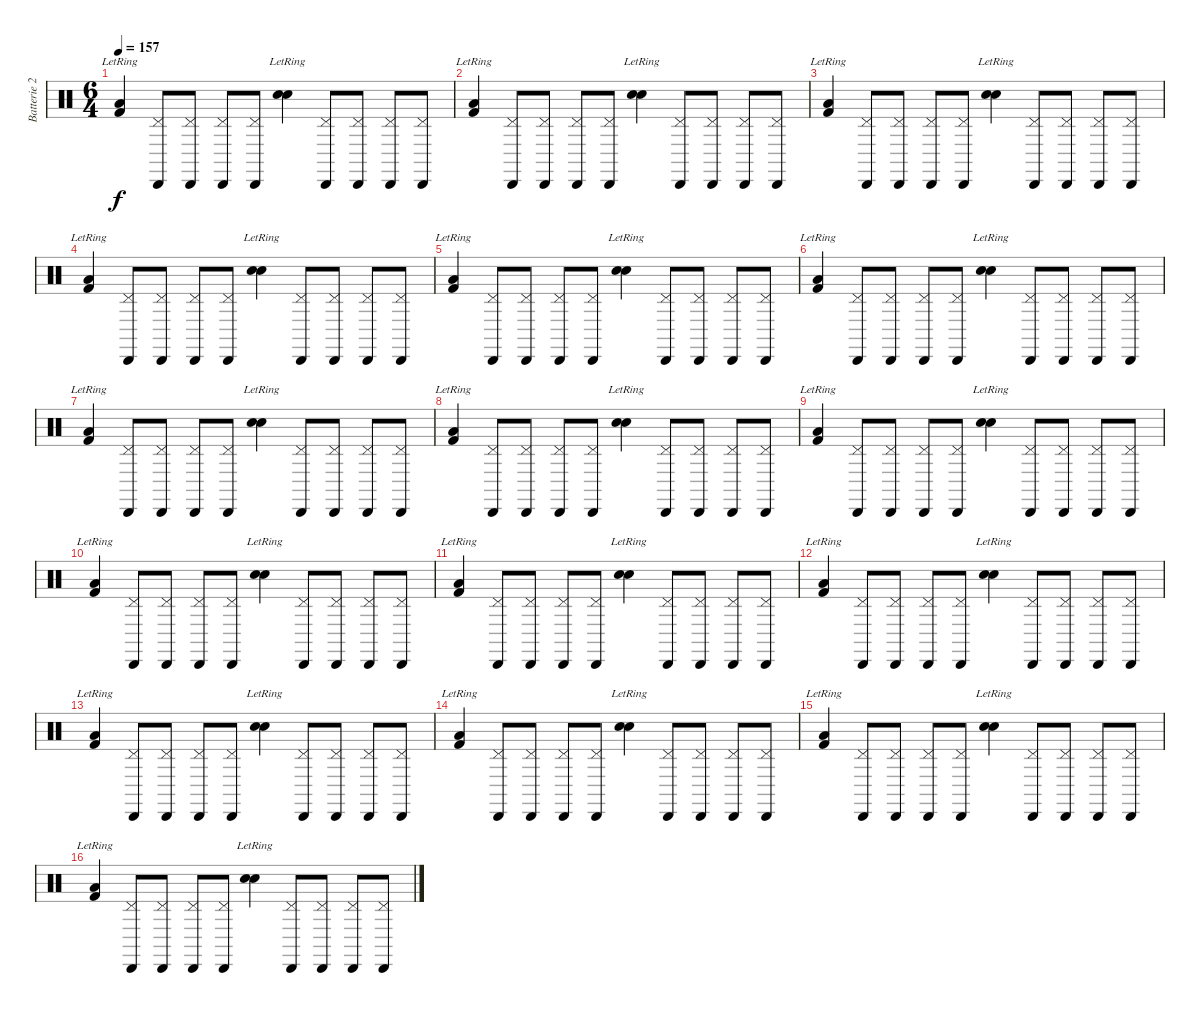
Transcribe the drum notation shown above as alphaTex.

\track ("Batterie 2" "Batterie 2") {instrument percussion}
\staff {score}
\articulation defaults
\ts (6 4)
\tempo 157
\clef neutral
\ks c
("Kick (hit) 2"{lr} "Low Floor Tom (hit)").4{dy f} ("Pedal Hi-Hat (hit)" "Cabasa (hit)").8 ("Pedal Hi-Hat (hit)" "Cabasa (hit)").8 ("Pedal Hi-Hat (hit)" "Cabasa (hit)").8 ("Pedal Hi-Hat (hit)" "Cabasa (hit)").8 ("Snare (hit) 2"{lr} "Electric Snare (hit)").4 ("Pedal Hi-Hat (hit)" "Cabasa (hit)").8 ("Pedal Hi-Hat (hit)" "Cabasa (hit)").8 ("Pedal Hi-Hat (hit)" "Cabasa (hit)").8 ("Pedal Hi-Hat (hit)" "Cabasa (hit)").8 |
("Kick (hit) 2"{lr} "Low Floor Tom (hit)").4 ("Pedal Hi-Hat (hit)" "Cabasa (hit)").8 ("Pedal Hi-Hat (hit)" "Cabasa (hit)").8 ("Pedal Hi-Hat (hit)" "Cabasa (hit)").8 ("Pedal Hi-Hat (hit)" "Cabasa (hit)").8 ("Snare (hit) 2"{lr} "Electric Snare (hit)").4 ("Pedal Hi-Hat (hit)" "Cabasa (hit)").8 ("Pedal Hi-Hat (hit)" "Cabasa (hit)").8 ("Pedal Hi-Hat (hit)" "Cabasa (hit)").8 ("Pedal Hi-Hat (hit)" "Cabasa (hit)").8 |
("Kick (hit) 2"{lr} "Low Floor Tom (hit)").4 ("Pedal Hi-Hat (hit)" "Cabasa (hit)").8 ("Pedal Hi-Hat (hit)" "Cabasa (hit)").8 ("Pedal Hi-Hat (hit)" "Cabasa (hit)").8 ("Pedal Hi-Hat (hit)" "Cabasa (hit)").8 ("Snare (hit) 2"{lr} "Electric Snare (hit)").4 ("Pedal Hi-Hat (hit)" "Cabasa (hit)").8 ("Pedal Hi-Hat (hit)" "Cabasa (hit)").8 ("Pedal Hi-Hat (hit)" "Cabasa (hit)").8 ("Pedal Hi-Hat (hit)" "Cabasa (hit)").8 |
("Kick (hit) 2"{lr} "Low Floor Tom (hit)").4 ("Pedal Hi-Hat (hit)" "Cabasa (hit)").8 ("Pedal Hi-Hat (hit)" "Cabasa (hit)").8 ("Pedal Hi-Hat (hit)" "Cabasa (hit)").8 ("Pedal Hi-Hat (hit)" "Cabasa (hit)").8 ("Snare (hit) 2"{lr} "Electric Snare (hit)").4 ("Pedal Hi-Hat (hit)" "Cabasa (hit)").8 ("Pedal Hi-Hat (hit)" "Cabasa (hit)").8 ("Pedal Hi-Hat (hit)" "Cabasa (hit)").8 ("Pedal Hi-Hat (hit)" "Cabasa (hit)").8 |
("Kick (hit) 2"{lr} "Low Floor Tom (hit)").4 ("Pedal Hi-Hat (hit)" "Cabasa (hit)").8 ("Pedal Hi-Hat (hit)" "Cabasa (hit)").8 ("Pedal Hi-Hat (hit)" "Cabasa (hit)").8 ("Pedal Hi-Hat (hit)" "Cabasa (hit)").8 ("Snare (hit) 2"{lr} "Electric Snare (hit)").4 ("Pedal Hi-Hat (hit)" "Cabasa (hit)").8 ("Pedal Hi-Hat (hit)" "Cabasa (hit)").8 ("Pedal Hi-Hat (hit)" "Cabasa (hit)").8 ("Pedal Hi-Hat (hit)" "Cabasa (hit)").8 |
("Kick (hit) 2"{lr} "Low Floor Tom (hit)").4 ("Pedal Hi-Hat (hit)" "Cabasa (hit)").8 ("Pedal Hi-Hat (hit)" "Cabasa (hit)").8 ("Pedal Hi-Hat (hit)" "Cabasa (hit)").8 ("Pedal Hi-Hat (hit)" "Cabasa (hit)").8 ("Snare (hit) 2"{lr} "Electric Snare (hit)").4 ("Pedal Hi-Hat (hit)" "Cabasa (hit)").8 ("Pedal Hi-Hat (hit)" "Cabasa (hit)").8 ("Pedal Hi-Hat (hit)" "Cabasa (hit)").8 ("Pedal Hi-Hat (hit)" "Cabasa (hit)").8 |
("Kick (hit) 2"{lr} "Low Floor Tom (hit)").4 ("Pedal Hi-Hat (hit)" "Cabasa (hit)").8 ("Pedal Hi-Hat (hit)" "Cabasa (hit)").8 ("Pedal Hi-Hat (hit)" "Cabasa (hit)").8 ("Pedal Hi-Hat (hit)" "Cabasa (hit)").8 ("Snare (hit) 2"{lr} "Electric Snare (hit)").4 ("Pedal Hi-Hat (hit)" "Cabasa (hit)").8 ("Pedal Hi-Hat (hit)" "Cabasa (hit)").8 ("Pedal Hi-Hat (hit)" "Cabasa (hit)").8 ("Pedal Hi-Hat (hit)" "Cabasa (hit)").8 |
("Kick (hit) 2"{lr} "Low Floor Tom (hit)").4 ("Pedal Hi-Hat (hit)" "Cabasa (hit)").8 ("Pedal Hi-Hat (hit)" "Cabasa (hit)").8 ("Pedal Hi-Hat (hit)" "Cabasa (hit)").8 ("Pedal Hi-Hat (hit)" "Cabasa (hit)").8 ("Snare (hit) 2"{lr} "Electric Snare (hit)").4 ("Pedal Hi-Hat (hit)" "Cabasa (hit)").8 ("Pedal Hi-Hat (hit)" "Cabasa (hit)").8 ("Pedal Hi-Hat (hit)" "Cabasa (hit)").8 ("Pedal Hi-Hat (hit)" "Cabasa (hit)").8 |
("Kick (hit) 2"{lr} "Low Floor Tom (hit)").4 ("Pedal Hi-Hat (hit)" "Cabasa (hit)").8 ("Pedal Hi-Hat (hit)" "Cabasa (hit)").8 ("Pedal Hi-Hat (hit)" "Cabasa (hit)").8 ("Pedal Hi-Hat (hit)" "Cabasa (hit)").8 ("Snare (hit) 2"{lr} "Electric Snare (hit)").4 ("Pedal Hi-Hat (hit)" "Cabasa (hit)").8 ("Pedal Hi-Hat (hit)" "Cabasa (hit)").8 ("Pedal Hi-Hat (hit)" "Cabasa (hit)").8 ("Pedal Hi-Hat (hit)" "Cabasa (hit)").8 |
("Kick (hit) 2"{lr} "Low Floor Tom (hit)").4 ("Pedal Hi-Hat (hit)" "Cabasa (hit)").8 ("Pedal Hi-Hat (hit)" "Cabasa (hit)").8 ("Pedal Hi-Hat (hit)" "Cabasa (hit)").8 ("Pedal Hi-Hat (hit)" "Cabasa (hit)").8 ("Snare (hit) 2"{lr} "Electric Snare (hit)").4 ("Pedal Hi-Hat (hit)" "Cabasa (hit)").8 ("Pedal Hi-Hat (hit)" "Cabasa (hit)").8 ("Pedal Hi-Hat (hit)" "Cabasa (hit)").8 ("Pedal Hi-Hat (hit)" "Cabasa (hit)").8 |
("Kick (hit) 2"{lr} "Low Floor Tom (hit)").4 ("Pedal Hi-Hat (hit)" "Cabasa (hit)").8 ("Pedal Hi-Hat (hit)" "Cabasa (hit)").8 ("Pedal Hi-Hat (hit)" "Cabasa (hit)").8 ("Pedal Hi-Hat (hit)" "Cabasa (hit)").8 ("Snare (hit) 2"{lr} "Electric Snare (hit)").4 ("Pedal Hi-Hat (hit)" "Cabasa (hit)").8 ("Pedal Hi-Hat (hit)" "Cabasa (hit)").8 ("Pedal Hi-Hat (hit)" "Cabasa (hit)").8 ("Pedal Hi-Hat (hit)" "Cabasa (hit)").8 |
("Kick (hit) 2"{lr} "Low Floor Tom (hit)").4 ("Pedal Hi-Hat (hit)" "Cabasa (hit)").8 ("Pedal Hi-Hat (hit)" "Cabasa (hit)").8 ("Pedal Hi-Hat (hit)" "Cabasa (hit)").8 ("Pedal Hi-Hat (hit)" "Cabasa (hit)").8 ("Snare (hit) 2"{lr} "Electric Snare (hit)").4 ("Pedal Hi-Hat (hit)" "Cabasa (hit)").8 ("Pedal Hi-Hat (hit)" "Cabasa (hit)").8 ("Pedal Hi-Hat (hit)" "Cabasa (hit)").8 ("Pedal Hi-Hat (hit)" "Cabasa (hit)").8 |
("Kick (hit) 2"{lr} "Low Floor Tom (hit)").4 ("Pedal Hi-Hat (hit)" "Cabasa (hit)").8 ("Pedal Hi-Hat (hit)" "Cabasa (hit)").8 ("Pedal Hi-Hat (hit)" "Cabasa (hit)").8 ("Pedal Hi-Hat (hit)" "Cabasa (hit)").8 ("Snare (hit) 2"{lr} "Electric Snare (hit)").4 ("Pedal Hi-Hat (hit)" "Cabasa (hit)").8 ("Pedal Hi-Hat (hit)" "Cabasa (hit)").8 ("Pedal Hi-Hat (hit)" "Cabasa (hit)").8 ("Pedal Hi-Hat (hit)" "Cabasa (hit)").8 |
("Kick (hit) 2"{lr} "Low Floor Tom (hit)").4 ("Pedal Hi-Hat (hit)" "Cabasa (hit)").8 ("Pedal Hi-Hat (hit)" "Cabasa (hit)").8 ("Pedal Hi-Hat (hit)" "Cabasa (hit)").8 ("Pedal Hi-Hat (hit)" "Cabasa (hit)").8 ("Snare (hit) 2"{lr} "Electric Snare (hit)").4 ("Pedal Hi-Hat (hit)" "Cabasa (hit)").8 ("Pedal Hi-Hat (hit)" "Cabasa (hit)").8 ("Pedal Hi-Hat (hit)" "Cabasa (hit)").8 ("Pedal Hi-Hat (hit)" "Cabasa (hit)").8 |
("Kick (hit) 2"{lr} "Low Floor Tom (hit)").4 ("Pedal Hi-Hat (hit)" "Cabasa (hit)").8 ("Pedal Hi-Hat (hit)" "Cabasa (hit)").8 ("Pedal Hi-Hat (hit)" "Cabasa (hit)").8 ("Pedal Hi-Hat (hit)" "Cabasa (hit)").8 ("Snare (hit) 2"{lr} "Electric Snare (hit)").4 ("Pedal Hi-Hat (hit)" "Cabasa (hit)").8 ("Pedal Hi-Hat (hit)" "Cabasa (hit)").8 ("Pedal Hi-Hat (hit)" "Cabasa (hit)").8 ("Pedal Hi-Hat (hit)" "Cabasa (hit)").8 |
("Kick (hit) 2"{lr} "Low Floor Tom (hit)").4 ("Pedal Hi-Hat (hit)" "Cabasa (hit)").8 ("Pedal Hi-Hat (hit)" "Cabasa (hit)").8 ("Pedal Hi-Hat (hit)" "Cabasa (hit)").8 ("Pedal Hi-Hat (hit)" "Cabasa (hit)").8 ("Snare (hit) 2"{lr} "Electric Snare (hit)").4 ("Pedal Hi-Hat (hit)" "Cabasa (hit)").8 ("Pedal Hi-Hat (hit)" "Cabasa (hit)").8 ("Pedal Hi-Hat (hit)" "Cabasa (hit)").8 ("Pedal Hi-Hat (hit)" "Cabasa (hit)").8
